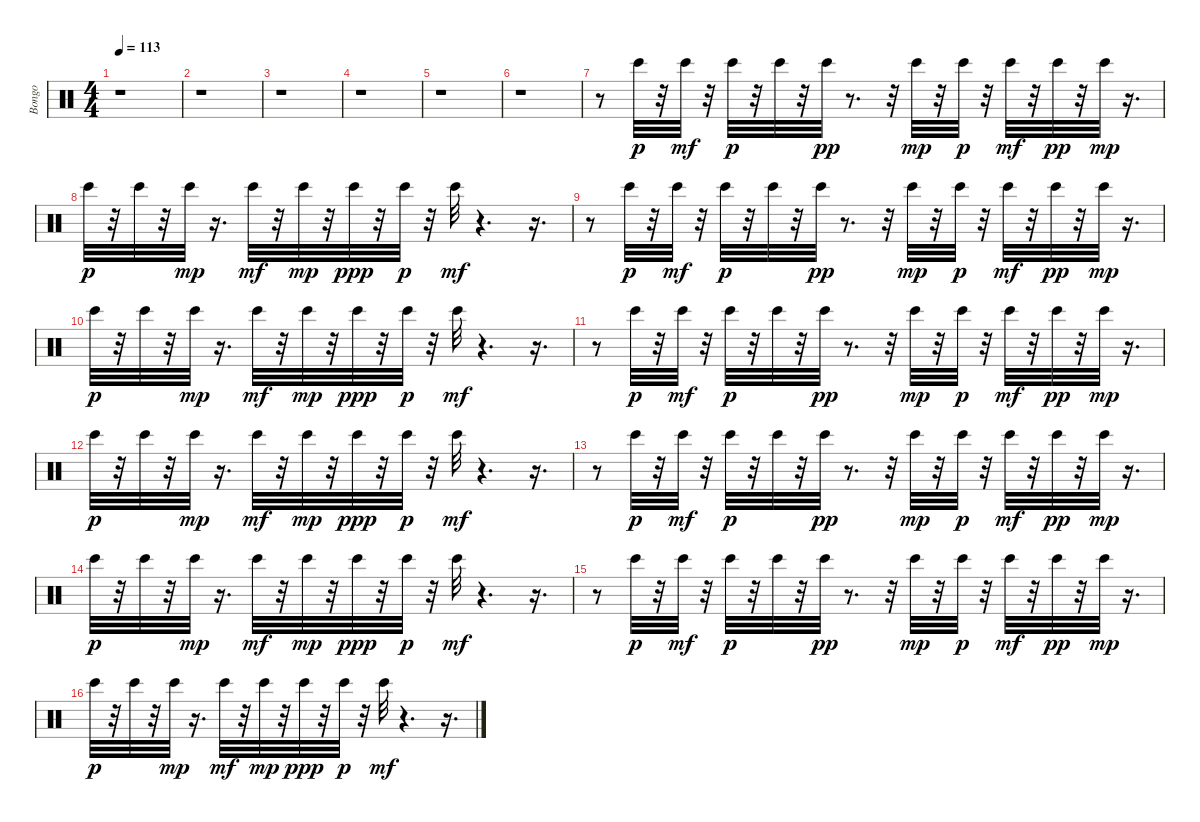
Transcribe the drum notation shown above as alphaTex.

\track ("Bongo" "Bongo") {instrument percussion}
\staff {score}
\articulation defaults
\ts (4 4)
\tempo 113
\clef neutral
\ks c
r.1{dy p} |
r.1 |
r.1 |
r.1 |
r.1 |
r.1 |
r.8 "Bongo High (hit)".32 r.32 "Bongo High (hit)".32{dy mf} r.32 "Bongo High (hit)".32{dy p} r.32 "Bongo High (hit)".32 r.32 "Bongo High (hit)".32{dy pp} r.8{d} r.32 "Bongo High (hit)".32{dy mp} r.32 "Bongo High (hit)".32{dy p} r.32 "Bongo High (hit)".32{dy mf} r.32 "Bongo High (hit)".32{dy pp} r.32 "Bongo High (hit)".32{dy mp} r.16{d} |
"Bongo High (hit)".32{dy p} r.32 "Bongo High (hit)".32 r.32 "Bongo High (hit)".32{dy mp} r.16{d} "Bongo High (hit)".32{dy mf} r.32 "Bongo High (hit)".32{dy mp} r.32 "Bongo High (hit)".32{dy ppp} r.32 "Bongo High (hit)".32{dy p} r.32 "Bongo High (hit)".32{dy mf} r.4{d} r.16{d} |
r.8 "Bongo High (hit)".32{dy p} r.32 "Bongo High (hit)".32{dy mf} r.32 "Bongo High (hit)".32{dy p} r.32 "Bongo High (hit)".32 r.32 "Bongo High (hit)".32{dy pp} r.8{d} r.32 "Bongo High (hit)".32{dy mp} r.32 "Bongo High (hit)".32{dy p} r.32 "Bongo High (hit)".32{dy mf} r.32 "Bongo High (hit)".32{dy pp} r.32 "Bongo High (hit)".32{dy mp} r.16{d} |
"Bongo High (hit)".32{dy p} r.32 "Bongo High (hit)".32 r.32 "Bongo High (hit)".32{dy mp} r.16{d} "Bongo High (hit)".32{dy mf} r.32 "Bongo High (hit)".32{dy mp} r.32 "Bongo High (hit)".32{dy ppp} r.32 "Bongo High (hit)".32{dy p} r.32 "Bongo High (hit)".32{dy mf} r.4{d} r.16{d} |
r.8 "Bongo High (hit)".32{dy p} r.32 "Bongo High (hit)".32{dy mf} r.32 "Bongo High (hit)".32{dy p} r.32 "Bongo High (hit)".32 r.32 "Bongo High (hit)".32{dy pp} r.8{d} r.32 "Bongo High (hit)".32{dy mp} r.32 "Bongo High (hit)".32{dy p} r.32 "Bongo High (hit)".32{dy mf} r.32 "Bongo High (hit)".32{dy pp} r.32 "Bongo High (hit)".32{dy mp} r.16{d} |
"Bongo High (hit)".32{dy p} r.32 "Bongo High (hit)".32 r.32 "Bongo High (hit)".32{dy mp} r.16{d} "Bongo High (hit)".32{dy mf} r.32 "Bongo High (hit)".32{dy mp} r.32 "Bongo High (hit)".32{dy ppp} r.32 "Bongo High (hit)".32{dy p} r.32 "Bongo High (hit)".32{dy mf} r.4{d} r.16{d} |
r.8 "Bongo High (hit)".32{dy p} r.32 "Bongo High (hit)".32{dy mf} r.32 "Bongo High (hit)".32{dy p} r.32 "Bongo High (hit)".32 r.32 "Bongo High (hit)".32{dy pp} r.8{d} r.32 "Bongo High (hit)".32{dy mp} r.32 "Bongo High (hit)".32{dy p} r.32 "Bongo High (hit)".32{dy mf} r.32 "Bongo High (hit)".32{dy pp} r.32 "Bongo High (hit)".32{dy mp} r.16{d} |
"Bongo High (hit)".32{dy p} r.32 "Bongo High (hit)".32 r.32 "Bongo High (hit)".32{dy mp} r.16{d} "Bongo High (hit)".32{dy mf} r.32 "Bongo High (hit)".32{dy mp} r.32 "Bongo High (hit)".32{dy ppp} r.32 "Bongo High (hit)".32{dy p} r.32 "Bongo High (hit)".32{dy mf} r.4{d} r.16{d} |
r.8 "Bongo High (hit)".32{dy p} r.32 "Bongo High (hit)".32{dy mf} r.32 "Bongo High (hit)".32{dy p} r.32 "Bongo High (hit)".32 r.32 "Bongo High (hit)".32{dy pp} r.8{d} r.32 "Bongo High (hit)".32{dy mp} r.32 "Bongo High (hit)".32{dy p} r.32 "Bongo High (hit)".32{dy mf} r.32 "Bongo High (hit)".32{dy pp} r.32 "Bongo High (hit)".32{dy mp} r.16{d} |
"Bongo High (hit)".32{dy p} r.32 "Bongo High (hit)".32 r.32 "Bongo High (hit)".32{dy mp} r.16{d} "Bongo High (hit)".32{dy mf} r.32 "Bongo High (hit)".32{dy mp} r.32 "Bongo High (hit)".32{dy ppp} r.32 "Bongo High (hit)".32{dy p} r.32 "Bongo High (hit)".32{dy mf} r.4{d} r.16{d}
